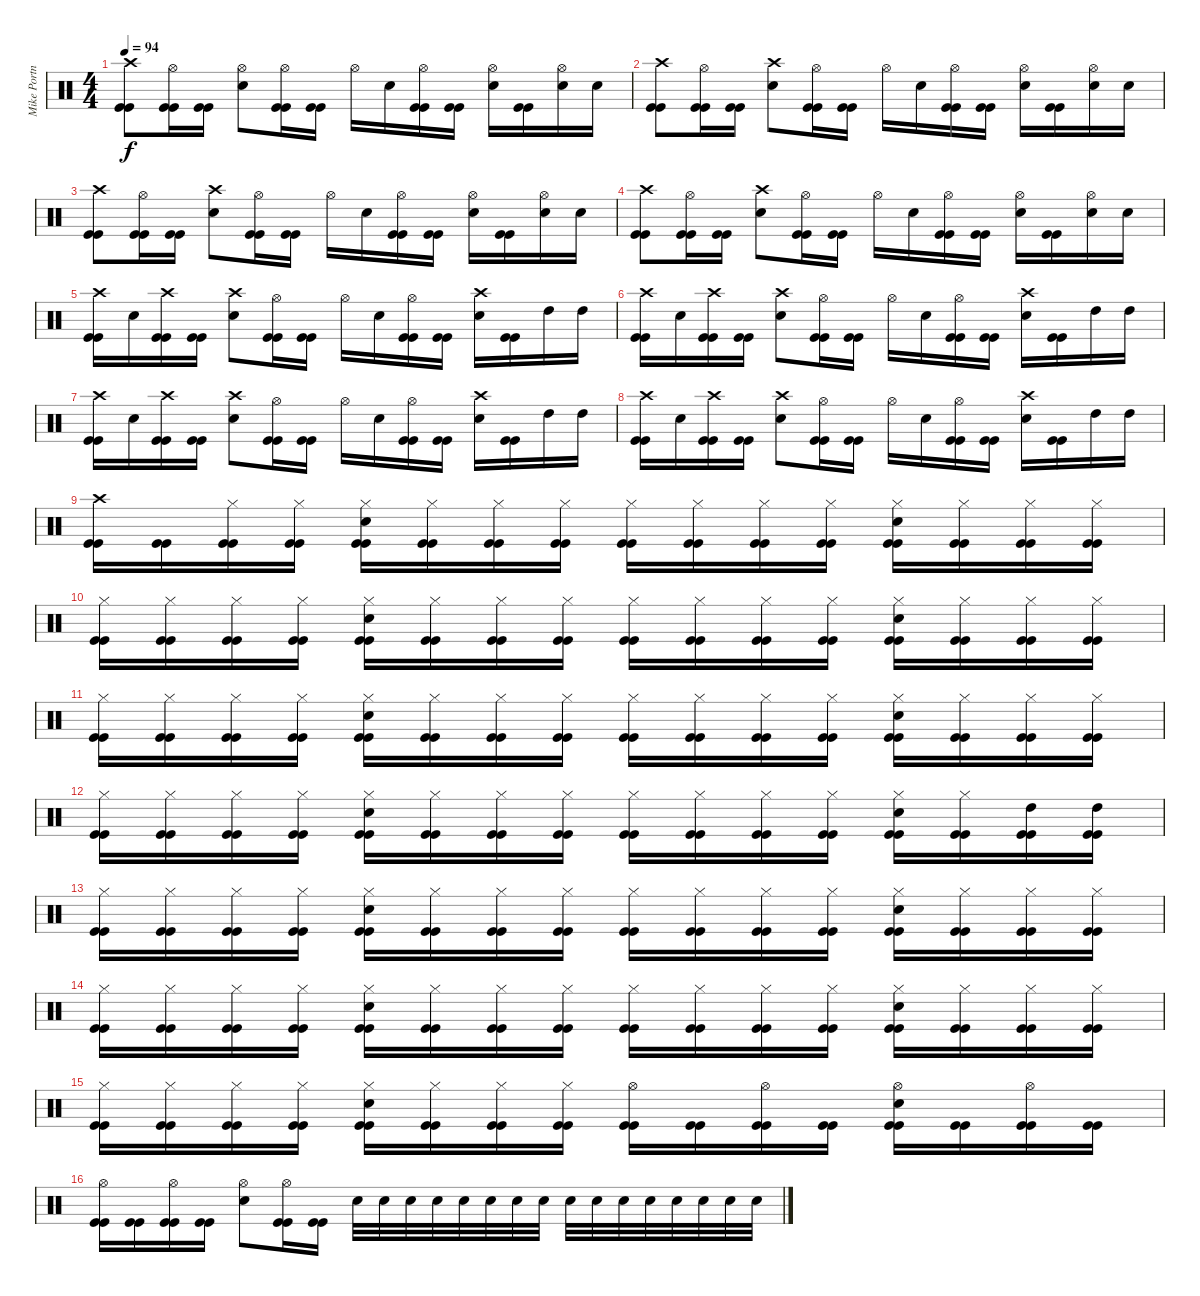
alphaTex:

\track ("Mike Portnoy - Drum" "Mike Portn") {instrument percussion}
\staff {score}
\articulation defaults
\ts (4 4)
\tempo 94
\clef neutral
\ks c
("Crash high (hit)" "Kick (hit)" "Kick (hit)").8{dy f} ("Hi-Hat (open)" "Kick (hit)" "Kick (hit)").16 ("Kick (hit)" "Kick (hit)").16 ("Hi-Hat (open)" "Snare (hit) 2").8 ("Hi-Hat (open)" "Kick (hit)" "Kick (hit)").16 ("Kick (hit)" "Kick (hit)").16 "Hi-Hat (open)".16 "Snare (hit) 2".16 ("Hi-Hat (open)" "Kick (hit)" "Kick (hit)").16 ("Kick (hit)" "Kick (hit)").16 ("Hi-Hat (open)" "Snare (hit) 2").16 ("Kick (hit)" "Kick (hit)").16 ("Hi-Hat (open)" "Snare (hit) 2").16 "Snare (hit) 2".16 |
("Crash high (hit)" "Kick (hit)" "Kick (hit)").8 ("Hi-Hat (open)" "Kick (hit)" "Kick (hit)").16 ("Kick (hit)" "Kick (hit)").16 ("Crash high (hit)" "Snare (hit) 2").8 ("Hi-Hat (open)" "Kick (hit)" "Kick (hit)").16 ("Kick (hit)" "Kick (hit)").16 "Hi-Hat (open)".16 "Snare (hit) 2".16 ("Hi-Hat (open)" "Kick (hit)" "Kick (hit)").16 ("Kick (hit)" "Kick (hit)").16 ("Hi-Hat (open)" "Snare (hit) 2").16 ("Kick (hit)" "Kick (hit)").16 ("Hi-Hat (open)" "Snare (hit) 2").16 "Snare (hit) 2".16 |
("Crash high (hit)" "Kick (hit)" "Kick (hit)").8 ("Hi-Hat (open)" "Kick (hit)" "Kick (hit)").16 ("Kick (hit)" "Kick (hit)").16 ("Crash high (hit)" "Snare (hit) 2").8 ("Hi-Hat (open)" "Kick (hit)" "Kick (hit)").16 ("Kick (hit)" "Kick (hit)").16 "Hi-Hat (open)".16 "Snare (hit) 2".16 ("Hi-Hat (open)" "Kick (hit)" "Kick (hit)").16 ("Kick (hit)" "Kick (hit)").16 ("Hi-Hat (open)" "Snare (hit) 2").16 ("Kick (hit)" "Kick (hit)").16 ("Hi-Hat (open)" "Snare (hit) 2").16 "Snare (hit) 2".16 |
("Crash high (hit)" "Kick (hit)" "Kick (hit)").8 ("Hi-Hat (open)" "Kick (hit)" "Kick (hit)").16 ("Kick (hit)" "Kick (hit)").16 ("Crash high (hit)" "Snare (hit) 2").8 ("Hi-Hat (open)" "Kick (hit)" "Kick (hit)").16 ("Kick (hit)" "Kick (hit)").16 "Hi-Hat (open)".16 "Snare (hit) 2".16 ("Hi-Hat (open)" "Kick (hit)" "Kick (hit)").16 ("Kick (hit)" "Kick (hit)").16 ("Hi-Hat (open)" "Snare (hit) 2").16 ("Kick (hit)" "Kick (hit)").16 ("Hi-Hat (open)" "Snare (hit) 2").16 "Snare (hit) 2".16 |
("Crash high (hit)" "Kick (hit)" "Kick (hit)").16 "Snare (hit) 2".16 ("Crash high (hit)" "Kick (hit)" "Kick (hit)").16 ("Kick (hit)" "Kick (hit)").16 ("Crash high (hit)" "Snare (hit) 2").8 ("Hi-Hat (open)" "Kick (hit)" "Kick (hit)").16 ("Kick (hit)" "Kick (hit)").16 "Hi-Hat (open)".16 "Snare (hit) 2".16 ("Hi-Hat (open)" "Kick (hit)" "Kick (hit)").16 ("Kick (hit)" "Kick (hit)").16 ("Crash high (hit)" "Snare (hit) 2").16 ("Kick (hit)" "Kick (hit)").16 "High Tom (hit)".16 "High Tom (hit)".16 |
("Crash high (hit)" "Kick (hit)" "Kick (hit)").16 "Snare (hit) 2".16 ("Crash high (hit)" "Kick (hit)" "Kick (hit)").16 ("Kick (hit)" "Kick (hit)").16 ("Crash high (hit)" "Snare (hit) 2").8 ("Hi-Hat (open)" "Kick (hit)" "Kick (hit)").16 ("Kick (hit)" "Kick (hit)").16 "Hi-Hat (open)".16 "Snare (hit) 2".16 ("Hi-Hat (open)" "Kick (hit)" "Kick (hit)").16 ("Kick (hit)" "Kick (hit)").16 ("Crash high (hit)" "Snare (hit) 2").16 ("Kick (hit)" "Kick (hit)").16 "High Tom (hit)".16 "High Tom (hit)".16 |
("Crash high (hit)" "Kick (hit)" "Kick (hit)").16 "Snare (hit) 2".16 ("Crash high (hit)" "Kick (hit)" "Kick (hit)").16 ("Kick (hit)" "Kick (hit)").16 ("Crash high (hit)" "Snare (hit) 2").8 ("Hi-Hat (open)" "Kick (hit)" "Kick (hit)").16 ("Kick (hit)" "Kick (hit)").16 "Hi-Hat (open)".16 "Snare (hit) 2".16 ("Hi-Hat (open)" "Kick (hit)" "Kick (hit)").16 ("Kick (hit)" "Kick (hit)").16 ("Crash high (hit)" "Snare (hit) 2").16 ("Kick (hit)" "Kick (hit)").16 "High Tom (hit)".16 "High Tom (hit)".16 |
("Crash high (hit)" "Kick (hit)" "Kick (hit)").16 "Snare (hit) 2".16 ("Crash high (hit)" "Kick (hit)" "Kick (hit)").16 ("Kick (hit)" "Kick (hit)").16 ("Crash high (hit)" "Snare (hit) 2").8 ("Hi-Hat (open)" "Kick (hit)" "Kick (hit)").16 ("Kick (hit)" "Kick (hit)").16 "Hi-Hat (open)".16 "Snare (hit) 2".16 ("Hi-Hat (open)" "Kick (hit)" "Kick (hit)").16 ("Kick (hit)" "Kick (hit)").16 ("Crash high (hit)" "Snare (hit) 2").16 ("Kick (hit)" "Kick (hit)").16 "High Tom (hit)".16 "High Tom (hit)".16 |
("Crash high (hit)" "Kick (hit)" "Kick (hit)").16 ("Kick (hit)" "Kick (hit)").16 ("Hi-Hat (closed)" "Kick (hit)" "Kick (hit)").16 ("Hi-Hat (closed)" "Kick (hit)" "Kick (hit)").16 ("Hi-Hat (closed)" "Snare (hit) 2" "Kick (hit)" "Kick (hit)").16 ("Hi-Hat (closed)" "Kick (hit)" "Kick (hit)").16 ("Hi-Hat (closed)" "Kick (hit)" "Kick (hit)").16 ("Hi-Hat (closed)" "Kick (hit)" "Kick (hit)").16 ("Hi-Hat (closed)" "Kick (hit)" "Kick (hit)").16 ("Hi-Hat (closed)" "Kick (hit)" "Kick (hit)").16 ("Hi-Hat (closed)" "Kick (hit)" "Kick (hit)").16 ("Hi-Hat (closed)" "Kick (hit)" "Kick (hit)").16 ("Hi-Hat (closed)" "Snare (hit) 2" "Kick (hit)" "Kick (hit)").16 ("Hi-Hat (closed)" "Kick (hit)" "Kick (hit)").16 ("Hi-Hat (closed)" "Kick (hit)" "Kick (hit)").16 ("Hi-Hat (closed)" "Kick (hit)" "Kick (hit)").16 |
("Hi-Hat (closed)" "Kick (hit)" "Kick (hit)").16 ("Hi-Hat (closed)" "Kick (hit)" "Kick (hit)").16 ("Hi-Hat (closed)" "Kick (hit)" "Kick (hit)").16 ("Hi-Hat (closed)" "Kick (hit)" "Kick (hit)").16 ("Hi-Hat (closed)" "Snare (hit) 2" "Kick (hit)" "Kick (hit)").16 ("Hi-Hat (closed)" "Kick (hit)" "Kick (hit)").16 ("Hi-Hat (closed)" "Kick (hit)" "Kick (hit)").16 ("Hi-Hat (closed)" "Kick (hit)" "Kick (hit)").16 ("Hi-Hat (closed)" "Kick (hit)" "Kick (hit)").16 ("Hi-Hat (closed)" "Kick (hit)" "Kick (hit)").16 ("Hi-Hat (closed)" "Kick (hit)" "Kick (hit)").16 ("Hi-Hat (closed)" "Kick (hit)" "Kick (hit)").16 ("Hi-Hat (closed)" "Snare (hit) 2" "Kick (hit)" "Kick (hit)").16 ("Hi-Hat (closed)" "Kick (hit)" "Kick (hit)").16 ("Hi-Hat (closed)" "Kick (hit)" "Kick (hit)").16 ("Hi-Hat (closed)" "Kick (hit)" "Kick (hit)").16 |
("Hi-Hat (closed)" "Kick (hit)" "Kick (hit)").16 ("Hi-Hat (closed)" "Kick (hit)" "Kick (hit)").16 ("Hi-Hat (closed)" "Kick (hit)" "Kick (hit)").16 ("Hi-Hat (closed)" "Kick (hit)" "Kick (hit)").16 ("Hi-Hat (closed)" "Snare (hit) 2" "Kick (hit)" "Kick (hit)").16 ("Hi-Hat (closed)" "Kick (hit)" "Kick (hit)").16 ("Hi-Hat (closed)" "Kick (hit)" "Kick (hit)").16 ("Hi-Hat (closed)" "Kick (hit)" "Kick (hit)").16 ("Hi-Hat (closed)" "Kick (hit)" "Kick (hit)").16 ("Hi-Hat (closed)" "Kick (hit)" "Kick (hit)").16 ("Hi-Hat (closed)" "Kick (hit)" "Kick (hit)").16 ("Hi-Hat (closed)" "Kick (hit)" "Kick (hit)").16 ("Hi-Hat (closed)" "Snare (hit) 2" "Kick (hit)" "Kick (hit)").16 ("Hi-Hat (closed)" "Kick (hit)" "Kick (hit)").16 ("Hi-Hat (closed)" "Kick (hit)" "Kick (hit)").16 ("Hi-Hat (closed)" "Kick (hit)" "Kick (hit)").16 |
("Hi-Hat (closed)" "Kick (hit)" "Kick (hit)").16 ("Hi-Hat (closed)" "Kick (hit)" "Kick (hit)").16 ("Hi-Hat (closed)" "Kick (hit)" "Kick (hit)").16 ("Hi-Hat (closed)" "Kick (hit)" "Kick (hit)").16 ("Hi-Hat (closed)" "Snare (hit) 2" "Kick (hit)" "Kick (hit)").16 ("Hi-Hat (closed)" "Kick (hit)" "Kick (hit)").16 ("Hi-Hat (closed)" "Kick (hit)" "Kick (hit)").16 ("Hi-Hat (closed)" "Kick (hit)" "Kick (hit)").16 ("Hi-Hat (closed)" "Kick (hit)" "Kick (hit)").16 ("Hi-Hat (closed)" "Kick (hit)" "Kick (hit)").16 ("Hi-Hat (closed)" "Kick (hit)" "Kick (hit)").16 ("Hi-Hat (closed)" "Kick (hit)" "Kick (hit)").16 ("Hi-Hat (closed)" "Snare (hit) 2" "Kick (hit)" "Kick (hit)").16 ("Hi-Hat (closed)" "Kick (hit)" "Kick (hit)").16 ("High Tom (hit)" "Kick (hit)" "Kick (hit)").16 ("High Tom (hit)" "Kick (hit)" "Kick (hit)").16 |
("Hi-Hat (closed)" "Kick (hit)" "Kick (hit)").16 ("Hi-Hat (closed)" "Kick (hit)" "Kick (hit)").16 ("Hi-Hat (closed)" "Kick (hit)" "Kick (hit)").16 ("Hi-Hat (closed)" "Kick (hit)" "Kick (hit)").16 ("Hi-Hat (closed)" "Snare (hit) 2" "Kick (hit)" "Kick (hit)").16 ("Hi-Hat (closed)" "Kick (hit)" "Kick (hit)").16 ("Hi-Hat (closed)" "Kick (hit)" "Kick (hit)").16 ("Hi-Hat (closed)" "Kick (hit)" "Kick (hit)").16 ("Hi-Hat (closed)" "Kick (hit)" "Kick (hit)").16 ("Hi-Hat (closed)" "Kick (hit)" "Kick (hit)").16 ("Hi-Hat (closed)" "Kick (hit)" "Kick (hit)").16 ("Hi-Hat (closed)" "Kick (hit)" "Kick (hit)").16 ("Hi-Hat (closed)" "Snare (hit) 2" "Kick (hit)" "Kick (hit)").16 ("Hi-Hat (closed)" "Kick (hit)" "Kick (hit)").16 ("Hi-Hat (closed)" "Kick (hit)" "Kick (hit)").16 ("Hi-Hat (closed)" "Kick (hit)" "Kick (hit)").16 |
("Hi-Hat (closed)" "Kick (hit)" "Kick (hit)").16 ("Hi-Hat (closed)" "Kick (hit)" "Kick (hit)").16 ("Hi-Hat (closed)" "Kick (hit)" "Kick (hit)").16 ("Hi-Hat (closed)" "Kick (hit)" "Kick (hit)").16 ("Hi-Hat (closed)" "Snare (hit) 2" "Kick (hit)" "Kick (hit)").16 ("Hi-Hat (closed)" "Kick (hit)" "Kick (hit)").16 ("Hi-Hat (closed)" "Kick (hit)" "Kick (hit)").16 ("Hi-Hat (closed)" "Kick (hit)" "Kick (hit)").16 ("Hi-Hat (closed)" "Kick (hit)" "Kick (hit)").16 ("Hi-Hat (closed)" "Kick (hit)" "Kick (hit)").16 ("Hi-Hat (closed)" "Kick (hit)" "Kick (hit)").16 ("Hi-Hat (closed)" "Kick (hit)" "Kick (hit)").16 ("Hi-Hat (closed)" "Snare (hit) 2" "Kick (hit)" "Kick (hit)").16 ("Hi-Hat (closed)" "Kick (hit)" "Kick (hit)").16 ("Hi-Hat (closed)" "Kick (hit)" "Kick (hit)").16 ("Hi-Hat (closed)" "Kick (hit)" "Kick (hit)").16 |
("Hi-Hat (closed)" "Kick (hit)" "Kick (hit)").16 ("Hi-Hat (closed)" "Kick (hit)" "Kick (hit)").16 ("Hi-Hat (closed)" "Kick (hit)" "Kick (hit)").16 ("Hi-Hat (closed)" "Kick (hit)" "Kick (hit)").16 ("Hi-Hat (closed)" "Snare (hit) 2" "Kick (hit)" "Kick (hit)").16 ("Hi-Hat (closed)" "Kick (hit)" "Kick (hit)").16 ("Hi-Hat (closed)" "Kick (hit)" "Kick (hit)").16 ("Hi-Hat (closed)" "Kick (hit)" "Kick (hit)").16 ("Hi-Hat (open)" "Kick (hit)" "Kick (hit)").16 ("Kick (hit)" "Kick (hit)").16 ("Hi-Hat (open)" "Kick (hit)" "Kick (hit)").16 ("Kick (hit)" "Kick (hit)").16 ("Hi-Hat (open)" "Snare (hit) 2" "Kick (hit)" "Kick (hit)").16 ("Kick (hit)" "Kick (hit)").16 ("Hi-Hat (open)" "Kick (hit)" "Kick (hit)").16 ("Kick (hit)" "Kick (hit)").16 |
("Hi-Hat (open)" "Kick (hit)" "Kick (hit)").16 ("Kick (hit)" "Kick (hit)").16 ("Hi-Hat (open)" "Kick (hit)" "Kick (hit)").16 ("Kick (hit)" "Kick (hit)").16 ("Hi-Hat (open)" "Snare (hit) 2").8 ("Hi-Hat (open)" "Kick (hit)" "Kick (hit)").16 ("Kick (hit)" "Kick (hit)").16 "Snare (hit) 2".32 "Snare (hit) 2".32 "Snare (hit) 2".32 "Snare (hit) 2".32 "Snare (hit) 2".32 "Snare (hit) 2".32 "Snare (hit) 2".32 "Snare (hit) 2".32 "Snare (hit) 2".32 "Snare (hit) 2".32 "Snare (hit) 2".32 "Snare (hit) 2".32 "Snare (hit) 2".32 "Snare (hit) 2".32 "Snare (hit) 2".32 "Snare (hit) 2".32
